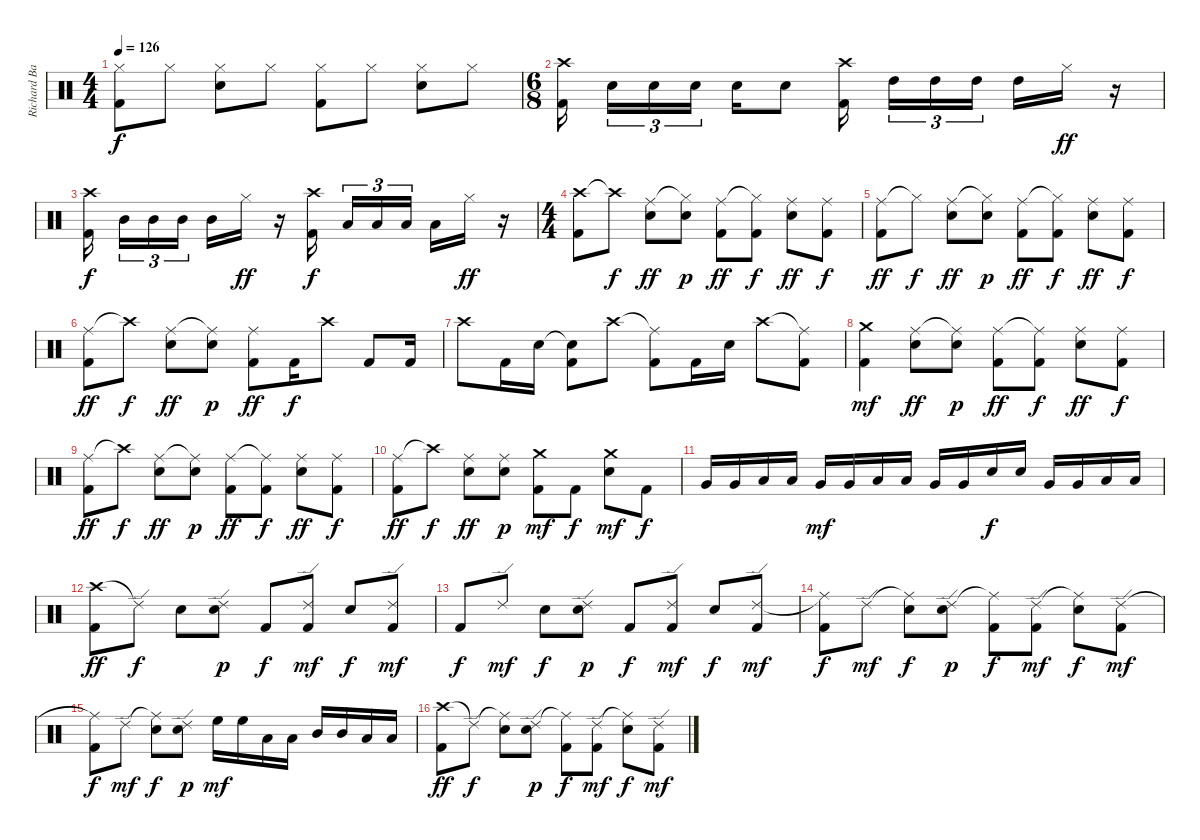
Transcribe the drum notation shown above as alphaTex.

\track ("Richard Bailey" "Richard Ba") {instrument percussion}
\staff {score}
\articulation defaults
\ts (4 4)
\tempo 126
\clef neutral
\ks c
("Hi-Hat (closed)" "Kick (hit) 2").8{dy f} "Hi-Hat (closed)".8 ("Hi-Hat (closed)" "Snare (hit) 2").8 "Hi-Hat (closed)".8 ("Hi-Hat (closed)" "Kick (hit) 2").8 "Hi-Hat (closed)".8 ("Hi-Hat (closed)" "Snare (hit) 2").8 "Hi-Hat (closed)".8 |
\ts (6 8)
("Crash high (hit)" "Kick (hit) 2").16 "Snare (hit) 2".16{tu (3 2)} "Snare (hit) 2".16{tu (3 2)} "Snare (hit) 2".16{tu (3 2)} "Snare (hit) 2".16 "Snare (hit) 2".8 ("Crash high (hit)" "Kick (hit) 2").16 "High Tom (hit)".16{tu (3 2)} "High Tom (hit)".16{tu (3 2)} "High Tom (hit)".16{tu (3 2)} "High Tom (hit)".16 "Hi-Hat (closed)".16{dy ff} r.16 |
("Crash high (hit)" "Kick (hit) 2").16{dy f} "Mid Tom (hit)".16{tu (3 2)} "Mid Tom (hit)".16{tu (3 2)} "Mid Tom (hit)".16{tu (3 2)} "Mid Tom (hit)".16 "Hi-Hat (closed)".16{dy ff} r.16 ("Crash high (hit)" "Kick (hit) 2").16{dy f} "Low Tom (hit)".16{tu (3 2)} "Low Tom (hit)".16{tu (3 2)} "Low Tom (hit)".16{tu (3 2)} "Low Tom (hit)".16 "Hi-Hat (closed)".16{dy ff} r.16 |
\ts (4 4)
("Crash high (hit)" "Kick (hit) 2").8 "Crash high (hit)"{t}.8{dy f} ("Ride (middle)" "Snare (hit) 2").8{dy ff} ("Hi-Hat (closed)"{t} "Snare (hit) 2").8{dy p} ("Ride (middle)" "Kick (hit) 2").8{dy ff} ("Hi-Hat (closed)"{t} "Kick (hit) 2").8{dy f} ("Ride (middle)" "Snare (hit) 2").8{dy ff} ("Ride (middle)" "Kick (hit) 2").8{dy f} |
("Ride (middle)" "Kick (hit) 2").8{dy ff} "Hi-Hat (closed)"{t}.8{dy f} ("Ride (middle)" "Snare (hit) 2").8{dy ff} ("Hi-Hat (closed)"{t} "Snare (hit) 2").8{dy p} ("Ride (middle)" "Kick (hit) 2").8{dy ff} ("Hi-Hat (closed)"{t} "Kick (hit) 2").8{dy f} ("Ride (middle)" "Snare (hit) 2").8{dy ff} ("Ride (middle)" "Kick (hit) 2").8{dy f} |
("Ride (middle)" "Kick (hit) 2").8{dy ff} "Crash high (hit)"{t}.8{dy f} ("Ride (middle)" "Snare (hit) 2").8{dy ff} ("Ride (middle)"{t} "Snare (hit) 2").8{dy p} ("Ride (middle)" "Kick (hit) 2").8{dy ff} "Kick (hit) 2".16{dy f} "Crash high (hit)".8 "Kick (hit) 2".8 "Kick (hit) 2".16 |
"Crash high (hit)".8 "Kick (hit) 2".16 "Snare (hit) 2".16 ("Snare (hit)"{t} "Kick (hit) 2").8 "Crash high (hit)".8 ("Ride (middle)"{t} "Kick (hit) 2").8 "Kick (hit) 2".16 "Snare (hit) 2".16 "Crash high (hit)".8 ("Ride (middle)"{t} "Kick (hit) 2").8 |
("Crash medium (hit)" "Kick (hit) 2").4{dy mf} ("Ride (middle)" "Snare (hit) 2").8{dy ff} ("Ride (middle)"{t} "Snare (hit) 2").8{dy p} ("Ride (middle)" "Kick (hit) 2").8{dy ff} ("Ride (middle)"{t} "Kick (hit) 2").8{dy f} ("Ride (middle)" "Snare (hit) 2").8{dy ff} ("Ride (middle)" "Kick (hit) 2").8{dy f} |
("Ride (middle)" "Kick (hit) 2").8{dy ff} "Crash high (hit)"{t}.8{dy f} ("Ride (middle)" "Snare (hit) 2").8{dy ff} ("Ride (middle)"{t} "Snare (hit) 2").8{dy p} ("Ride (middle)" "Kick (hit) 2").8{dy ff} ("Ride (middle)"{t} "Kick (hit) 2").8{dy f} ("Ride (middle)" "Snare (hit) 2").8{dy ff} ("Ride (middle)" "Kick (hit) 2").8{dy f} |
("Ride (middle)" "Kick (hit) 2").8{dy ff} "Crash high (hit)"{t}.8{dy f} ("Ride (middle)" "Snare (hit) 2").8{dy ff} ("Ride (middle)" "Snare (hit) 2").8{dy p} ("Crash medium (hit)" "Kick (hit) 2").8{dy mf} "Kick (hit) 2".8{dy f} ("Crash medium (hit)" "Snare (hit) 2").8{dy mf} "Kick (hit) 2".8{dy f} |
"Very Low Tom (hit)".16 "Very Low Tom (hit)".16 "Low Tom (hit)".16 "Low Tom (hit)".16 "Very Low Tom (hit)".16{dy mf} "Very Low Tom (hit)".16 "Low Tom (hit)".16 "Low Tom (hit)".16 "Very Low Tom (hit)".16 "Very Low Tom (hit)".16 "Electric Snare (hit)".16{dy f} "Electric Snare (hit)".16 "Very Low Tom (hit)".16 "Very Low Tom (hit)".16 "Low Tom (hit)".16 "Low Tom (hit)".16 |
("Crash high (hit)" "Kick (hit) 2").8{dy ff} "Ride (edge) 2"{t}.8{dy f} "Snare (hit) 2".8 ("Ride (edge) 2" "Snare (hit) 2").8{dy p} "Kick (hit) 2".8{dy f} ("Ride (edge) 2" "Kick (hit) 2").8{dy mf} "Snare (hit) 2".8{dy f} ("Ride (edge) 2" "Kick (hit) 2").8{dy mf} |
"Kick (hit) 2".8{dy f} "Ride (edge) 2".8{dy mf} "Snare (hit) 2".8{dy f} ("Ride (edge) 2" "Snare (hit) 2").8{dy p} "Kick (hit) 2".8{dy f} ("Ride (edge) 2" "Kick (hit) 2").8{dy mf} "Snare (hit) 2".8{dy f} ("Ride (edge) 2" "Kick (hit) 2").8{dy mf} |
("Ride (middle)"{t} "Kick (hit) 2").8{dy f} "Ride (edge) 2".8{dy mf} ("Ride (middle)"{t} "Snare (hit) 2").8{dy f} ("Ride (edge) 2" "Snare (hit) 2").8{dy p} ("Ride (middle)"{t} "Kick (hit) 2").8{dy f} ("Ride (edge) 2" "Kick (hit) 2").8{dy mf} ("Ride (middle)"{t} "Snare (hit) 2").8{dy f} ("Ride (edge) 2" "Kick (hit) 2").8{dy mf} |
("Ride (middle)"{t} "Kick (hit) 2").8{dy f} "Ride (edge) 2".8{dy mf} ("Ride (middle)"{t} "Snare (hit) 2").8{dy f} ("Ride (edge) 2" "Snare (hit) 2").8{dy p} "High Floor Tom (hit)".16{dy mf} "High Floor Tom (hit)".16 "Low Tom (hit)".16 "Low Tom (hit)".16 "Mid Tom (hit)".16 "Mid Tom (hit)".16 "Low Tom (hit)".16 "Low Tom (hit)".16 |
("Crash high (hit)" "Kick (hit) 2").8{dy ff} "Ride (edge) 2"{t}.8{dy f} ("Ride (middle)"{t} "Snare (hit) 2").8 ("Ride (edge) 2" "Snare (hit) 2").8{dy p} ("Ride (middle)"{t} "Kick (hit) 2").8{dy f} ("Ride (edge) 2" "Kick (hit) 2").8{dy mf} ("Ride (middle)"{t} "Snare (hit) 2").8{dy f} ("Ride (edge) 2" "Kick (hit) 2").8{dy mf}
